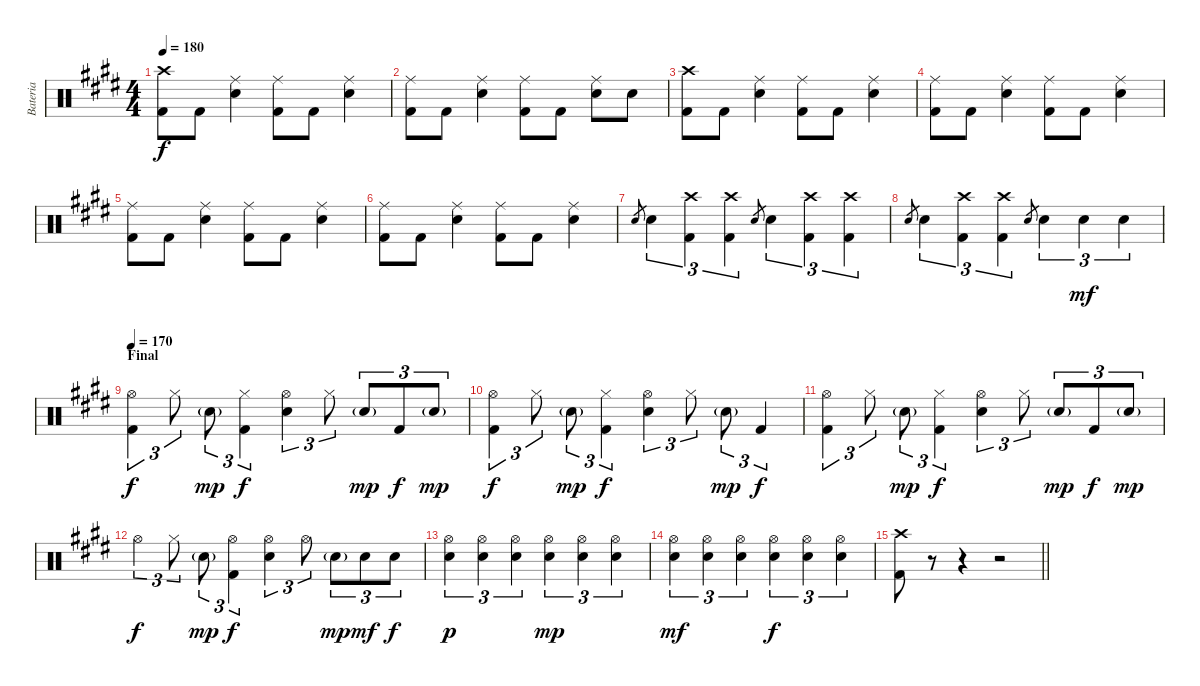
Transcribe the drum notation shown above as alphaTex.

\track ("Bateria" "Bateria") {instrument percussion}
\staff {score}
\articulation defaults
\ts (4 4)
\tempo 180
\clef neutral
\ks e
("Crash high (hit)" "Kick (hit) 2").8{dy f} "Kick (hit) 2".8 ("Ride (middle)" "Electric Snare (hit)").4 ("Ride (middle)" "Kick (hit) 2").8 "Kick (hit) 2".8 ("Ride (middle)" "Electric Snare (hit)").4 |
("Ride (middle)" "Kick (hit) 2").8 "Kick (hit) 2".8 ("Ride (middle)" "Electric Snare (hit)").4 ("Ride (middle)" "Kick (hit) 2").8 "Kick (hit) 2".8 ("Ride (middle)" "Electric Snare (hit)").8 "Electric Snare (hit)".8 |
("Crash high (hit)" "Kick (hit) 2").8 "Kick (hit) 2".8 ("Ride (middle)" "Electric Snare (hit)").4 ("Ride (middle)" "Kick (hit) 2").8 "Kick (hit) 2".8 ("Ride (middle)" "Electric Snare (hit)").4 |
("Ride (middle)" "Kick (hit) 2").8 "Kick (hit) 2".8 ("Ride (middle)" "Electric Snare (hit)").4 ("Ride (middle)" "Kick (hit) 2").8 "Kick (hit) 2".8 ("Ride (middle)" "Electric Snare (hit)").4 |
("Ride (middle)" "Kick (hit) 2").8 "Kick (hit) 2".8 ("Ride (middle)" "Electric Snare (hit)").4 ("Ride (middle)" "Kick (hit) 2").8 "Kick (hit) 2".8 ("Ride (middle)" "Electric Snare (hit)").4 |
("Ride (middle)" "Kick (hit) 2").8 "Kick (hit) 2".8 ("Ride (middle)" "Electric Snare (hit)").4 ("Ride (middle)" "Kick (hit) 2").8 "Kick (hit) 2".8 ("Ride (middle)" "Electric Snare (hit)").4 |
"Electric Snare (hit)".8{gr} "Electric Snare (hit)".4{tu (3 2)} ("Crash high (hit)" "Kick (hit) 2").4{tu (3 2)} ("Crash high (hit)" "Kick (hit) 2").4{tu (3 2)} "Electric Snare (hit)".8{gr} "Electric Snare (hit)".4{tu (3 2)} ("Crash high (hit)" "Kick (hit) 2").4{tu (3 2)} ("Crash high (hit)" "Kick (hit) 2").4{tu (3 2)} |
"Electric Snare (hit)".8{gr} "Electric Snare (hit)".4{tu (3 2)} ("Crash high (hit)" "Kick (hit) 2").4{tu (3 2)} ("Crash high (hit)" "Kick (hit) 2").4{tu (3 2)} "Electric Snare (hit)".8{gr} "Electric Snare (hit)".4{tu (3 2)} "Electric Snare (hit)".4{tu (3 2) dy mf} "Electric Snare (hit)".4{tu (3 2)} |
\section ("" "Final")
\tempo 170
("Hi-Hat (open)" "Kick (hit) 2").4{tu (3 2) dy f} "Hi-Hat (closed)".8{tu (3 2)} "Electric Snare (hit)"{g}.8{tu (3 2) dy mp} ("Hi-Hat (closed)" "Kick (hit) 2").4{tu (3 2) dy f} ("Hi-Hat (open)" "Electric Snare (hit)").4{tu (3 2)} "Hi-Hat (closed)".8{tu (3 2)} "Electric Snare (hit)"{g}.8{tu (3 2) dy mp} "Kick (hit) 2".8{tu (3 2) dy f} "Electric Snare (hit)"{g}.8{tu (3 2) dy mp} |
("Hi-Hat (open)" "Kick (hit) 2").4{tu (3 2) dy f} "Hi-Hat (closed)".8{tu (3 2)} "Electric Snare (hit)"{g}.8{tu (3 2) dy mp} ("Hi-Hat (closed)" "Kick (hit) 2").4{tu (3 2) dy f} ("Hi-Hat (open)" "Electric Snare (hit)").4{tu (3 2)} "Hi-Hat (closed)".8{tu (3 2)} "Electric Snare (hit)"{g}.8{tu (3 2) dy mp} "Kick (hit) 2".4{tu (3 2) dy f} |
("Hi-Hat (open)" "Kick (hit) 2").4{tu (3 2)} "Hi-Hat (closed)".8{tu (3 2)} "Electric Snare (hit)"{g}.8{tu (3 2) dy mp} ("Hi-Hat (closed)" "Kick (hit) 2").4{tu (3 2) dy f} ("Hi-Hat (open)" "Electric Snare (hit)").4{tu (3 2)} "Hi-Hat (closed)".8{tu (3 2)} "Electric Snare (hit)"{g}.8{tu (3 2) dy mp} "Kick (hit) 2".8{tu (3 2) dy f} "Electric Snare (hit)"{g}.8{tu (3 2) dy mp} |
"Hi-Hat (open)".4{tu (3 2) dy f} "Hi-Hat (closed)".8{tu (3 2)} "Electric Snare (hit)"{g}.8{tu (3 2) dy mp} ("Hi-Hat (open)" "Kick (hit) 2").4{tu (3 2) dy f} ("Hi-Hat (open)" "Electric Snare (hit)").4{tu (3 2)} "Hi-Hat (open)".8{tu (3 2)} "Electric Snare (hit)"{g}.8{tu (3 2) dy mp} "Electric Snare (hit)".8{tu (3 2) dy mf} "Electric Snare (hit)".8{tu (3 2) dy f} |
("Hi-Hat (open)" "Electric Snare (hit)").4{tu (3 2) dy p} ("Hi-Hat (open)" "Electric Snare (hit)").4{tu (3 2)} ("Hi-Hat (open)" "Electric Snare (hit)").4{tu (3 2)} ("Hi-Hat (open)" "Electric Snare (hit)").4{tu (3 2) dy mp} ("Hi-Hat (open)" "Electric Snare (hit)").4{tu (3 2)} ("Hi-Hat (open)" "Electric Snare (hit)").4{tu (3 2)} |
("Hi-Hat (open)" "Electric Snare (hit)").4{tu (3 2) dy mf} ("Hi-Hat (open)" "Electric Snare (hit)").4{tu (3 2)} ("Hi-Hat (open)" "Electric Snare (hit)").4{tu (3 2)} ("Hi-Hat (open)" "Electric Snare (hit)").4{tu (3 2) dy f} ("Hi-Hat (open)" "Electric Snare (hit)").4{tu (3 2)} ("Hi-Hat (open)" "Electric Snare (hit)").4{tu (3 2)} |
\barLineRight lightlight
("Crash high (hit)" "Kick (hit) 2").8 r.8 r.4 r.2
